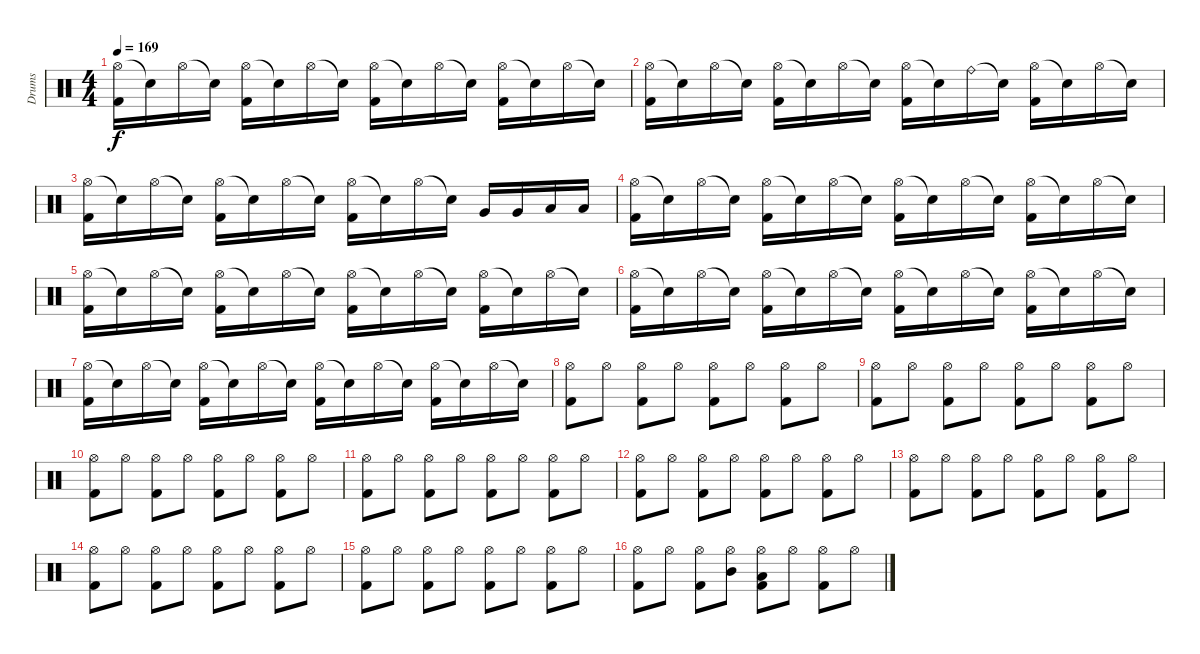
\track ("Drums" "Drums") {instrument percussion}
\staff {score}
\articulation defaults
\ts (4 4)
\tempo 169
\clef neutral
\ks c
("Hi-Hat (open)" "Kick (hit) 2").16{dy f} "Snare (hit)"{t}.16 "Hi-Hat (open)".16 "Snare (hit)"{t}.16 ("Hi-Hat (open)" "Kick (hit) 2").16 "Snare (hit)"{t}.16 "Hi-Hat (open)".16 "Snare (hit)"{t}.16 ("Hi-Hat (open)" "Kick (hit) 2").16 "Snare (hit)"{t}.16 "Hi-Hat (open)".16 "Snare (hit)"{t}.16 ("Hi-Hat (open)" "Kick (hit) 2").16 "Snare (hit)"{t}.16 "Hi-Hat (open)".16 "Snare (hit)"{t}.16 |
("Hi-Hat (open)" "Kick (hit) 2").16 "Snare (hit)"{t}.16 "Hi-Hat (open)".16 "Snare (hit)"{t}.16 ("Hi-Hat (open)" "Kick (hit) 2").16 "Snare (hit)"{t}.16 "Hi-Hat (open)".16 "Snare (hit)"{t}.16 ("Hi-Hat (open)" "Kick (hit) 2").16 "Snare (hit)"{t}.16 "Ride (bell)".16 "Snare (hit)"{t}.16 ("Hi-Hat (open)" "Kick (hit) 2").16 "Snare (hit)"{t}.16 "Hi-Hat (open)".16 "Snare (hit)"{t}.16 |
("Hi-Hat (open)" "Kick (hit) 2").16 "Snare (hit)"{t}.16 "Hi-Hat (open)".16 "Snare (hit)"{t}.16 ("Hi-Hat (open)" "Kick (hit) 2").16 "Snare (hit)"{t}.16 "Hi-Hat (open)".16 "Snare (hit)"{t}.16 ("Hi-Hat (open)" "Kick (hit) 2").16 "Snare (hit)"{t}.16 "Hi-Hat (open)".16 "Snare (hit)"{t}.16 "Very Low Tom (hit)".16 "Very Low Tom (hit)".16 "Low Floor Tom (hit)".16 "Low Floor Tom (hit)".16 |
("Hi-Hat (open)" "Kick (hit) 2").16 "Snare (hit)"{t}.16 "Hi-Hat (open)".16 "Snare (hit)"{t}.16 ("Hi-Hat (open)" "Kick (hit) 2").16 "Snare (hit)"{t}.16 "Hi-Hat (open)".16 "Snare (hit)"{t}.16 ("Hi-Hat (open)" "Kick (hit) 2").16 "Snare (hit)"{t}.16 "Hi-Hat (open)".16 "Snare (hit)"{t}.16 ("Hi-Hat (open)" "Kick (hit) 2").16 "Snare (hit)"{t}.16 "Hi-Hat (open)".16 "Snare (hit)"{t}.16 |
("Hi-Hat (open)" "Kick (hit) 2").16 "Snare (hit)"{t}.16 "Hi-Hat (open)".16 "Snare (hit)"{t}.16 ("Hi-Hat (open)" "Kick (hit) 2").16 "Snare (hit)"{t}.16 "Hi-Hat (open)".16 "Snare (hit)"{t}.16 ("Hi-Hat (open)" "Kick (hit) 2").16 "Snare (hit)"{t}.16 "Hi-Hat (open)".16 "Snare (hit)"{t}.16 ("Hi-Hat (open)" "Kick (hit) 2").16 "Snare (hit)"{t}.16 "Hi-Hat (open)".16 "Snare (hit)"{t}.16 |
("Hi-Hat (open)" "Kick (hit) 2").16 "Snare (hit)"{t}.16 "Hi-Hat (open)".16 "Snare (hit)"{t}.16 ("Hi-Hat (open)" "Kick (hit) 2").16 "Snare (hit)"{t}.16 "Hi-Hat (open)".16 "Snare (hit)"{t}.16 ("Hi-Hat (open)" "Kick (hit) 2").16 "Snare (hit)"{t}.16 "Hi-Hat (open)".16 "Snare (hit)"{t}.16 ("Hi-Hat (open)" "Kick (hit) 2").16 "Snare (hit)"{t}.16 "Hi-Hat (open)".16 "Snare (hit)"{t}.16 |
("Hi-Hat (open)" "Kick (hit) 2").16 "Snare (hit)"{t}.16 "Hi-Hat (open)".16 "Snare (hit)"{t}.16 ("Hi-Hat (open)" "Kick (hit) 2").16 "Snare (hit)"{t}.16 "Hi-Hat (open)".16 "Snare (hit)"{t}.16 ("Hi-Hat (open)" "Kick (hit) 2").16 "Snare (hit)"{t}.16 "Hi-Hat (open)".16 "Snare (hit)"{t}.16 ("Hi-Hat (open)" "Kick (hit) 2").16 "Snare (hit)"{t}.16 "Hi-Hat (open)".16 "Snare (hit)"{t}.16 |
("Hi-Hat (open)" "Kick (hit) 2").8 "Hi-Hat (open)".8 ("Hi-Hat (open)" "Kick (hit) 2").8 "Hi-Hat (open)".8 ("Hi-Hat (open)" "Kick (hit) 2").8 "Hi-Hat (open)".8 ("Hi-Hat (open)" "Kick (hit) 2").8 "Hi-Hat (open)".8 |
("Hi-Hat (open)" "Kick (hit) 2").8 "Hi-Hat (open)".8 ("Hi-Hat (open)" "Kick (hit) 2").8 "Hi-Hat (open)".8 ("Hi-Hat (open)" "Kick (hit) 2").8 "Hi-Hat (open)".8 ("Hi-Hat (open)" "Kick (hit) 2").8 "Hi-Hat (open)".8 |
("Hi-Hat (open)" "Kick (hit) 2").8 "Hi-Hat (open)".8 ("Hi-Hat (open)" "Kick (hit) 2").8 "Hi-Hat (open)".8 ("Hi-Hat (open)" "Kick (hit) 2").8 "Hi-Hat (open)".8 ("Hi-Hat (open)" "Kick (hit) 2").8 "Hi-Hat (open)".8 |
("Hi-Hat (open)" "Kick (hit) 2").8 "Hi-Hat (open)".8 ("Hi-Hat (open)" "Kick (hit) 2").8 "Hi-Hat (open)".8 ("Hi-Hat (open)" "Kick (hit) 2").8 "Hi-Hat (open)".8 ("Hi-Hat (open)" "Kick (hit) 2").8 "Hi-Hat (open)".8 |
("Hi-Hat (open)" "Kick (hit) 2").8 "Hi-Hat (open)".8 ("Hi-Hat (open)" "Kick (hit) 2").8 "Hi-Hat (open)".8 ("Hi-Hat (open)" "Kick (hit) 2").8 "Hi-Hat (open)".8 ("Hi-Hat (open)" "Kick (hit) 2").8 "Hi-Hat (open)".8 |
("Hi-Hat (open)" "Kick (hit) 2").8 "Hi-Hat (open)".8 ("Hi-Hat (open)" "Kick (hit) 2").8 "Hi-Hat (open)".8 ("Hi-Hat (open)" "Kick (hit) 2").8 "Hi-Hat (open)".8 ("Hi-Hat (open)" "Kick (hit) 2").8 "Hi-Hat (open)".8 |
("Hi-Hat (open)" "Kick (hit) 2").8 "Hi-Hat (open)".8 ("Hi-Hat (open)" "Kick (hit) 2").8 "Hi-Hat (open)".8 ("Hi-Hat (open)" "Kick (hit) 2").8 "Hi-Hat (open)".8 ("Hi-Hat (open)" "Kick (hit) 2").8 "Hi-Hat (open)".8 |
("Hi-Hat (open)" "Kick (hit) 2").8 "Hi-Hat (open)".8 ("Hi-Hat (open)" "Kick (hit) 2").8 "Hi-Hat (open)".8 ("Hi-Hat (open)" "Kick (hit) 2").8 "Hi-Hat (open)".8 ("Hi-Hat (open)" "Kick (hit) 2").8 "Hi-Hat (open)".8 |
("Hi-Hat (open)" "Kick (hit) 2").8 "Hi-Hat (open)".8 ("Hi-Hat (open)" "Kick (hit) 2").8 ("Hi-Hat (open)" "Mid Tom (hit)").8 ("Hi-Hat (open)" "Low Tom (hit)" "Kick (hit) 2").8 "Hi-Hat (open)".8 ("Hi-Hat (open)" "Kick (hit) 2").8 "Hi-Hat (open)".8
